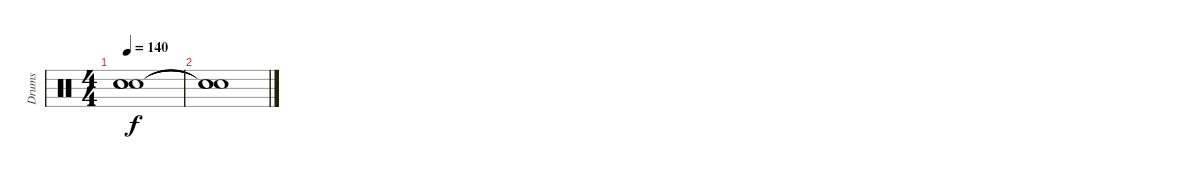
\track ("Drums" "Drums") {instrument percussion}
\staff {score}
\articulation defaults
\ts (4 4)
\tempo 140
\clef neutral
\ks c
("Snare (hit)"{t} "Snare (hit)"{t} "Snare (hit)"{t}).1{dy f} |
("Snare (hit)"{t} "Snare (hit)"{t} "Snare (hit)"{t}).1
